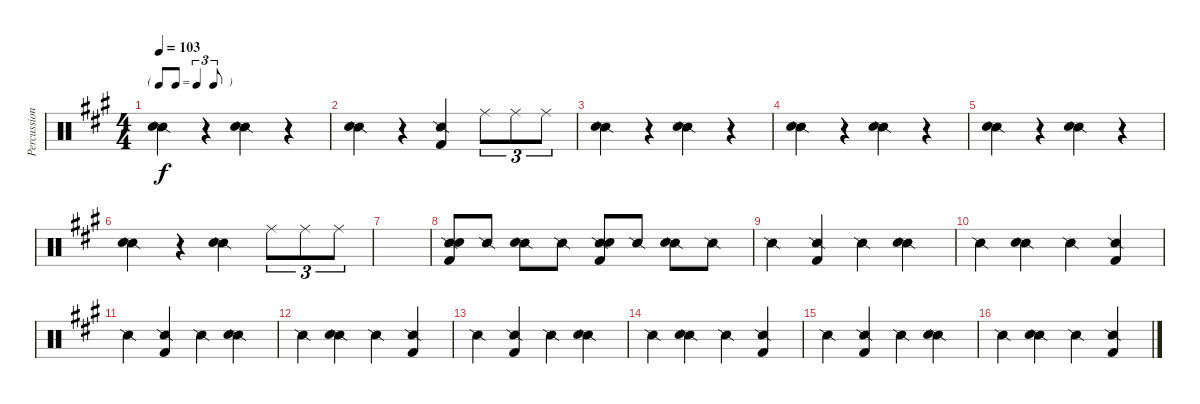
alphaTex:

\track ("Percussions" "Percussion") {instrument percussion}
\staff {score}
\articulation defaults
\ts (4 4)
\tf triplet8th
\tempo 103
\clef neutral
\ks a
("Snare (side stick) 2" "Snare (hit) 2").4{dy f} r.4 ("Snare (side stick) 2" "Snare (hit) 2").4 r.4 |
("Snare (side stick) 2" "Snare (hit) 2").4 r.4 ("Snare (side stick) 2" "Kick (hit) 2").4 "Ride (middle)".8{tu (3 2)} "Ride (middle)".8{tu (3 2)} "Ride (middle)".8{tu (3 2)} |
("Snare (side stick) 2" "Snare (hit) 2").4 r.4 ("Snare (side stick) 2" "Snare (hit) 2").4 r.4 |
("Snare (side stick) 2" "Snare (hit) 2").4 r.4 ("Snare (side stick) 2" "Snare (hit) 2").4 r.4 |
("Snare (side stick) 2" "Snare (hit) 2").4 r.4 ("Snare (side stick) 2" "Snare (hit) 2").4 r.4 |
("Snare (side stick) 2" "Snare (hit) 2").4 r.4 ("Snare (side stick) 2" "Snare (hit) 2").4 "Ride (middle)".8{tu (3 2)} "Ride (middle)".8{tu (3 2)} "Ride (middle)".8{tu (3 2)} |
|
("Snare (side stick) 2" "Snare (hit) 2" "Kick (hit) 2").8 "Snare (side stick) 2".8 ("Snare (side stick) 2" "Snare (hit) 2").8 "Snare (side stick) 2".8 ("Snare (side stick) 2" "Snare (hit) 2" "Kick (hit) 2").8 "Snare (side stick) 2".8 ("Snare (side stick) 2" "Snare (hit) 2").8 "Snare (side stick) 2".8 |
"Snare (side stick) 2".4 ("Snare (side stick) 2" "Kick (hit) 2").4 "Snare (side stick) 2".4 ("Snare (side stick) 2" "Snare (hit) 2").4 |
"Snare (side stick) 2".4 ("Snare (side stick) 2" "Snare (hit) 2").4 "Snare (side stick) 2".4 ("Snare (side stick) 2" "Kick (hit) 2").4 |
"Snare (side stick) 2".4 ("Snare (side stick) 2" "Kick (hit) 2").4 "Snare (side stick) 2".4 ("Snare (side stick) 2" "Snare (hit) 2").4 |
"Snare (side stick) 2".4 ("Snare (side stick) 2" "Snare (hit) 2").4 "Snare (side stick) 2".4 ("Snare (side stick) 2" "Kick (hit) 2").4 |
"Snare (side stick) 2".4 ("Snare (side stick) 2" "Kick (hit) 2").4 "Snare (side stick) 2".4 ("Snare (side stick) 2" "Snare (hit) 2").4 |
"Snare (side stick) 2".4 ("Snare (side stick) 2" "Snare (hit) 2").4 "Snare (side stick) 2".4 ("Snare (side stick) 2" "Kick (hit) 2").4 |
"Snare (side stick) 2".4 ("Snare (side stick) 2" "Kick (hit) 2").4 "Snare (side stick) 2".4 ("Snare (side stick) 2" "Snare (hit) 2").4 |
"Snare (side stick) 2".4 ("Snare (side stick) 2" "Snare (hit) 2").4 "Snare (side stick) 2".4 ("Snare (side stick) 2" "Kick (hit) 2").4
